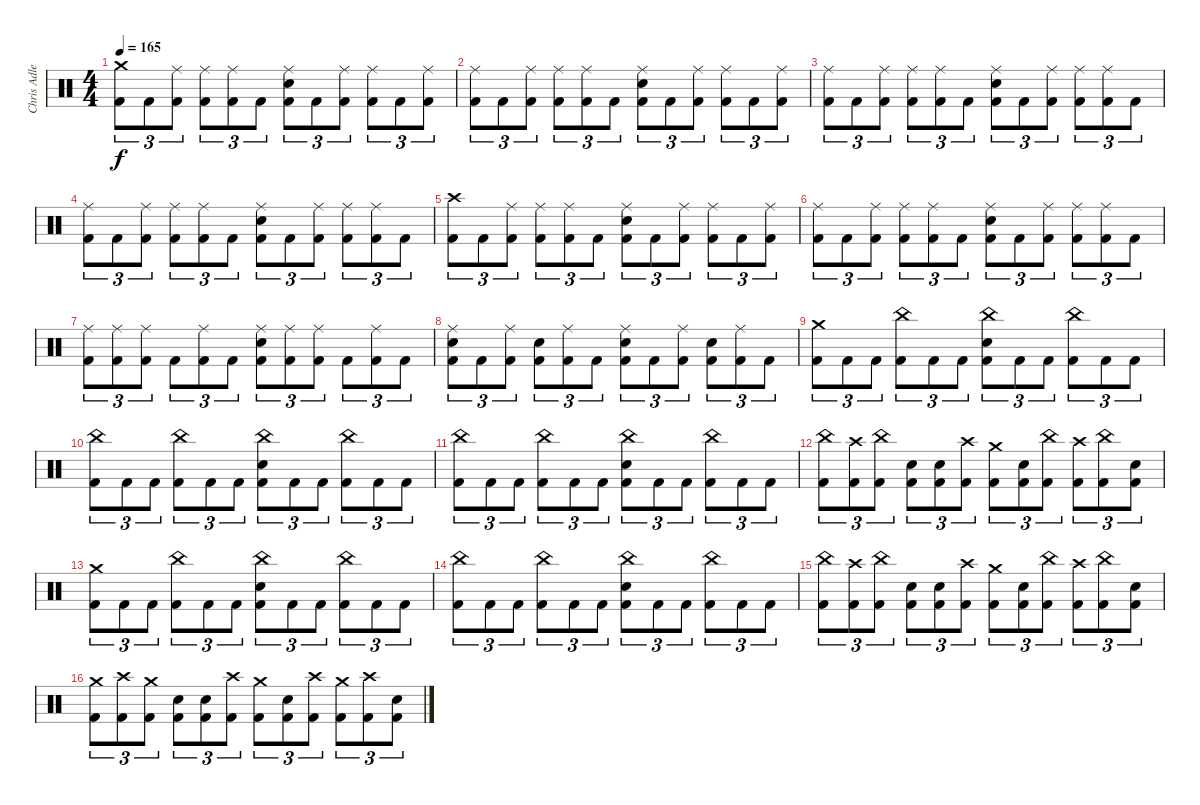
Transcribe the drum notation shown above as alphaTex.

\track ("Chris Adler" "Chris Adle") {instrument percussion}
\staff {score}
\articulation defaults
\ts (4 4)
\tempo 165
\clef neutral
\ks c
("Crash medium (hit)" "Kick (hit) 2").8{tu (3 2) dy f} "Kick (hit) 2".8{tu (3 2)} ("Ride (middle)" "Kick (hit) 2").8{tu (3 2)} ("Ride (middle)" "Kick (hit) 2").8{tu (3 2)} ("Ride (middle)" "Kick (hit) 2").8{tu (3 2)} "Kick (hit) 2".8{tu (3 2)} ("Ride (middle)" "Electric Snare (hit)" "Kick (hit) 2").8{tu (3 2)} "Kick (hit) 2".8{tu (3 2)} ("Ride (middle)" "Kick (hit) 2").8{tu (3 2)} ("Ride (middle)" "Kick (hit) 2").8{tu (3 2)} "Kick (hit) 2".8{tu (3 2)} ("Ride (middle)" "Kick (hit) 2").8{tu (3 2)} |
("Ride (middle)" "Kick (hit) 2").8{tu (3 2)} "Kick (hit) 2".8{tu (3 2)} ("Ride (middle)" "Kick (hit) 2").8{tu (3 2)} ("Ride (middle)" "Kick (hit) 2").8{tu (3 2)} ("Ride (middle)" "Kick (hit) 2").8{tu (3 2)} "Kick (hit) 2".8{tu (3 2)} ("Ride (middle)" "Electric Snare (hit)" "Kick (hit) 2").8{tu (3 2)} "Kick (hit) 2".8{tu (3 2)} ("Ride (middle)" "Kick (hit) 2").8{tu (3 2)} ("Ride (middle)" "Kick (hit) 2").8{tu (3 2)} "Kick (hit) 2".8{tu (3 2)} ("Ride (middle)" "Kick (hit) 2").8{tu (3 2)} |
("Ride (middle)" "Kick (hit) 2").8{tu (3 2)} "Kick (hit) 2".8{tu (3 2)} ("Ride (middle)" "Kick (hit) 2").8{tu (3 2)} ("Ride (middle)" "Kick (hit) 2").8{tu (3 2)} ("Ride (middle)" "Kick (hit) 2").8{tu (3 2)} "Kick (hit) 2".8{tu (3 2)} ("Ride (middle)" "Electric Snare (hit)" "Kick (hit) 2").8{tu (3 2)} "Kick (hit) 2".8{tu (3 2)} ("Ride (middle)" "Kick (hit) 2").8{tu (3 2)} ("Ride (middle)" "Kick (hit) 2").8{tu (3 2)} ("Ride (middle)" "Kick (hit) 2").8{tu (3 2)} "Kick (hit) 2".8{tu (3 2)} |
("Ride (middle)" "Kick (hit) 2").8{tu (3 2)} "Kick (hit) 2".8{tu (3 2)} ("Ride (middle)" "Kick (hit) 2").8{tu (3 2)} ("Ride (middle)" "Kick (hit) 2").8{tu (3 2)} ("Ride (middle)" "Kick (hit) 2").8{tu (3 2)} "Kick (hit) 2".8{tu (3 2)} ("Ride (middle)" "Electric Snare (hit)" "Kick (hit) 2").8{tu (3 2)} "Kick (hit) 2".8{tu (3 2)} ("Ride (middle)" "Kick (hit) 2").8{tu (3 2)} ("Ride (middle)" "Kick (hit) 2").8{tu (3 2)} ("Ride (middle)" "Kick (hit) 2").8{tu (3 2)} "Kick (hit) 2".8{tu (3 2)} |
("Crash high (hit)" "Kick (hit) 2").8{tu (3 2)} "Kick (hit) 2".8{tu (3 2)} ("Ride (middle)" "Kick (hit) 2").8{tu (3 2)} ("Ride (middle)" "Kick (hit) 2").8{tu (3 2)} ("Ride (middle)" "Kick (hit) 2").8{tu (3 2)} "Kick (hit) 2".8{tu (3 2)} ("Ride (middle)" "Electric Snare (hit)" "Kick (hit) 2").8{tu (3 2)} "Kick (hit) 2".8{tu (3 2)} ("Ride (middle)" "Kick (hit) 2").8{tu (3 2)} ("Ride (middle)" "Kick (hit) 2").8{tu (3 2)} "Kick (hit) 2".8{tu (3 2)} ("Ride (middle)" "Kick (hit) 2").8{tu (3 2)} |
("Ride (middle)" "Kick (hit) 2").8{tu (3 2)} "Kick (hit) 2".8{tu (3 2)} ("Ride (middle)" "Kick (hit) 2").8{tu (3 2)} ("Ride (middle)" "Kick (hit) 2").8{tu (3 2)} ("Ride (middle)" "Kick (hit) 2").8{tu (3 2)} "Kick (hit) 2".8{tu (3 2)} ("Ride (middle)" "Electric Snare (hit)" "Kick (hit) 2").8{tu (3 2)} "Kick (hit) 2".8{tu (3 2)} ("Ride (middle)" "Kick (hit) 2").8{tu (3 2)} ("Ride (middle)" "Kick (hit) 2").8{tu (3 2)} ("Ride (middle)" "Kick (hit) 2").8{tu (3 2)} "Kick (hit) 2".8{tu (3 2)} |
("Ride (middle)" "Kick (hit) 2").8{tu (3 2)} ("Ride (middle)" "Kick (hit) 2").8{tu (3 2)} ("Ride (middle)" "Kick (hit) 2").8{tu (3 2)} "Kick (hit) 2".8{tu (3 2)} ("Ride (middle)" "Kick (hit) 2").8{tu (3 2)} "Kick (hit) 2".8{tu (3 2)} ("Ride (middle)" "Electric Snare (hit)" "Kick (hit) 2").8{tu (3 2)} ("Ride (middle)" "Kick (hit) 2").8{tu (3 2)} ("Ride (middle)" "Kick (hit) 2").8{tu (3 2)} "Kick (hit) 2".8{tu (3 2)} ("Ride (middle)" "Kick (hit) 2").8{tu (3 2)} "Kick (hit) 2".8{tu (3 2)} |
("Ride (middle)" "Electric Snare (hit)" "Kick (hit) 2").8{tu (3 2)} "Kick (hit) 2".8{tu (3 2)} ("Ride (middle)" "Kick (hit) 2").8{tu (3 2)} ("Electric Snare (hit)" "Kick (hit) 2").8{tu (3 2)} ("Ride (middle)" "Kick (hit) 2").8{tu (3 2)} "Kick (hit) 2".8{tu (3 2)} ("Ride (middle)" "Electric Snare (hit)" "Kick (hit) 2").8{tu (3 2)} "Kick (hit) 2".8{tu (3 2)} ("Ride (middle)" "Kick (hit) 2").8{tu (3 2)} ("Electric Snare (hit)" "Kick (hit) 2").8{tu (3 2)} ("Ride (middle)" "Kick (hit) 2").8{tu (3 2)} "Kick (hit) 2".8{tu (3 2)} |
("Crash medium (hit)" "Kick (hit) 2").8{tu (3 2)} "Kick (hit) 2".8{tu (3 2)} "Kick (hit) 2".8{tu (3 2)} ("China (hit)" "Kick (hit) 2").8{tu (3 2)} "Kick (hit) 2".8{tu (3 2)} "Kick (hit) 2".8{tu (3 2)} ("China (hit)" "Electric Snare (hit)" "Kick (hit) 2").8{tu (3 2)} "Kick (hit) 2".8{tu (3 2)} "Kick (hit) 2".8{tu (3 2)} ("China (hit)" "Kick (hit) 2").8{tu (3 2)} "Kick (hit) 2".8{tu (3 2)} "Kick (hit) 2".8{tu (3 2)} |
("China (hit)" "Kick (hit) 2").8{tu (3 2)} "Kick (hit) 2".8{tu (3 2)} "Kick (hit) 2".8{tu (3 2)} ("China (hit)" "Kick (hit) 2").8{tu (3 2)} "Kick (hit) 2".8{tu (3 2)} "Kick (hit) 2".8{tu (3 2)} ("China (hit)" "Electric Snare (hit)" "Kick (hit) 2").8{tu (3 2)} "Kick (hit) 2".8{tu (3 2)} "Kick (hit) 2".8{tu (3 2)} ("China (hit)" "Kick (hit) 2").8{tu (3 2)} "Kick (hit) 2".8{tu (3 2)} "Kick (hit) 2".8{tu (3 2)} |
("China (hit)" "Kick (hit) 2").8{tu (3 2)} "Kick (hit) 2".8{tu (3 2)} "Kick (hit) 2".8{tu (3 2)} ("China (hit)" "Kick (hit) 2").8{tu (3 2)} "Kick (hit) 2".8{tu (3 2)} "Kick (hit) 2".8{tu (3 2)} ("China (hit)" "Electric Snare (hit)" "Kick (hit) 2").8{tu (3 2)} "Kick (hit) 2".8{tu (3 2)} "Kick (hit) 2".8{tu (3 2)} ("China (hit)" "Kick (hit) 2").8{tu (3 2)} "Kick (hit) 2".8{tu (3 2)} "Kick (hit) 2".8{tu (3 2)} |
("China (hit)" "Kick (hit) 2").8{tu (3 2)} ("Crash high (hit)" "Kick (hit) 2").8{tu (3 2)} ("China (hit)" "Kick (hit) 2").8{tu (3 2)} ("Electric Snare (hit)" "Kick (hit) 2").8{tu (3 2)} ("Electric Snare (hit)" "Kick (hit) 2").8{tu (3 2)} ("Crash high (hit)" "Kick (hit) 2").8{tu (3 2)} ("Crash medium (hit)" "Kick (hit) 2").8{tu (3 2)} ("Electric Snare (hit)" "Kick (hit) 2").8{tu (3 2)} ("China (hit)" "Kick (hit) 2").8{tu (3 2)} ("Crash high (hit)" "Kick (hit) 2").8{tu (3 2)} ("China (hit)" "Kick (hit) 2").8{tu (3 2)} ("Electric Snare (hit)" "Kick (hit) 2").8{tu (3 2)} |
("Crash medium (hit)" "Kick (hit) 2").8{tu (3 2)} "Kick (hit) 2".8{tu (3 2)} "Kick (hit) 2".8{tu (3 2)} ("China (hit)" "Kick (hit) 2").8{tu (3 2)} "Kick (hit) 2".8{tu (3 2)} "Kick (hit) 2".8{tu (3 2)} ("China (hit)" "Electric Snare (hit)" "Kick (hit) 2").8{tu (3 2)} "Kick (hit) 2".8{tu (3 2)} "Kick (hit) 2".8{tu (3 2)} ("China (hit)" "Kick (hit) 2").8{tu (3 2)} "Kick (hit) 2".8{tu (3 2)} "Kick (hit) 2".8{tu (3 2)} |
("China (hit)" "Kick (hit) 2").8{tu (3 2)} "Kick (hit) 2".8{tu (3 2)} "Kick (hit) 2".8{tu (3 2)} ("China (hit)" "Kick (hit) 2").8{tu (3 2)} "Kick (hit) 2".8{tu (3 2)} "Kick (hit) 2".8{tu (3 2)} ("China (hit)" "Electric Snare (hit)" "Kick (hit) 2").8{tu (3 2)} "Kick (hit) 2".8{tu (3 2)} "Kick (hit) 2".8{tu (3 2)} ("China (hit)" "Kick (hit) 2").8{tu (3 2)} "Kick (hit) 2".8{tu (3 2)} "Kick (hit) 2".8{tu (3 2)} |
("China (hit)" "Kick (hit) 2").8{tu (3 2)} ("Crash high (hit)" "Kick (hit) 2").8{tu (3 2)} ("China (hit)" "Kick (hit) 2").8{tu (3 2)} ("Electric Snare (hit)" "Kick (hit) 2").8{tu (3 2)} ("Electric Snare (hit)" "Kick (hit) 2").8{tu (3 2)} ("Crash high (hit)" "Kick (hit) 2").8{tu (3 2)} ("Crash medium (hit)" "Kick (hit) 2").8{tu (3 2)} ("Electric Snare (hit)" "Kick (hit) 2").8{tu (3 2)} ("China (hit)" "Kick (hit) 2").8{tu (3 2)} ("Crash high (hit)" "Kick (hit) 2").8{tu (3 2)} ("China (hit)" "Kick (hit) 2").8{tu (3 2)} ("Electric Snare (hit)" "Kick (hit) 2").8{tu (3 2)} |
("Crash medium (hit)" "Kick (hit) 2").8{tu (3 2)} ("Crash high (hit)" "Kick (hit) 2").8{tu (3 2)} ("Crash medium (hit)" "Kick (hit) 2").8{tu (3 2)} ("Electric Snare (hit)" "Kick (hit) 2").8{tu (3 2)} ("Electric Snare (hit)" "Kick (hit) 2").8{tu (3 2)} ("Crash high (hit)" "Kick (hit) 2").8{tu (3 2)} ("Crash medium (hit)" "Kick (hit) 2").8{tu (3 2)} ("Electric Snare (hit)" "Kick (hit) 2").8{tu (3 2)} ("Crash high (hit)" "Kick (hit) 2").8{tu (3 2)} ("Crash medium (hit)" "Kick (hit) 2").8{tu (3 2)} ("Crash high (hit)" "Kick (hit) 2").8{tu (3 2)} ("Electric Snare (hit)" "Kick (hit) 2").8{tu (3 2)}
